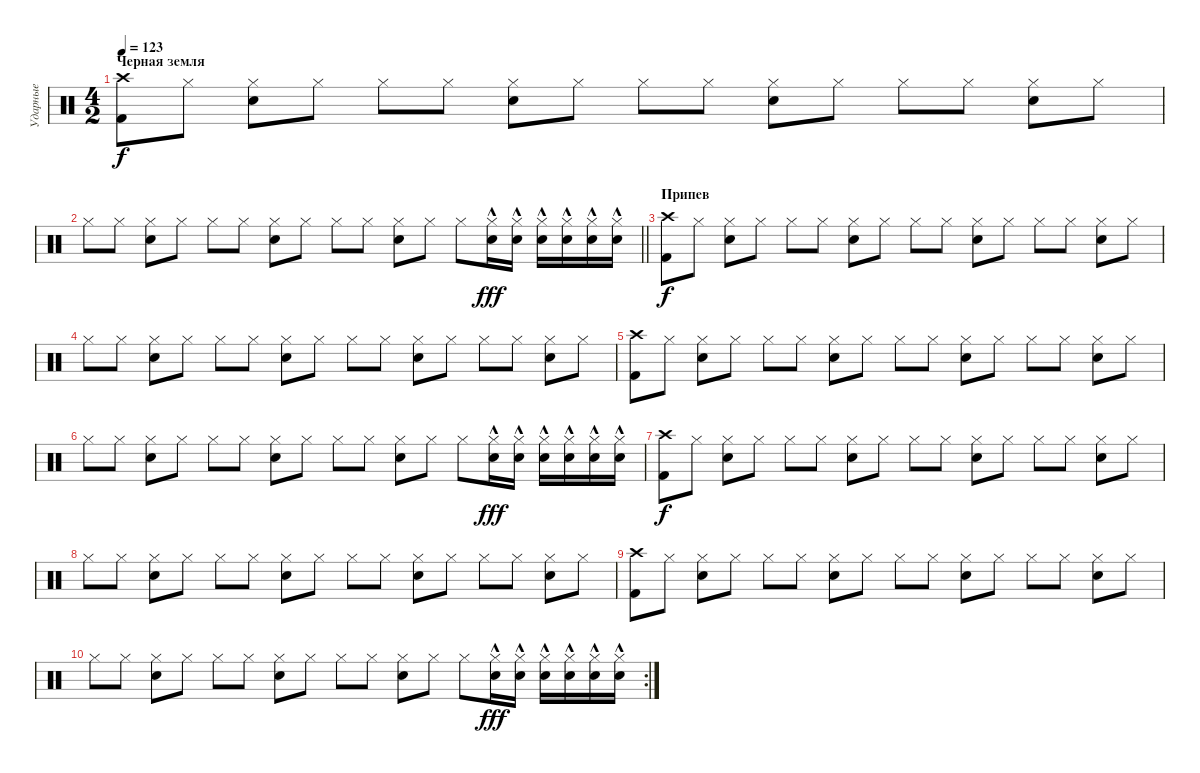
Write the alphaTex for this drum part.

\track ("Ударные" "Ударные") {instrument percussion}
\staff {score}
\articulation defaults
\ts (4 2)
\section ("" "Черная земля")
\tempo 123
\clef neutral
\ks c
("Crash high (hit)" "Kick (hit) 2").8{dy f} "Hi-Hat (closed)".8 ("Hi-Hat (closed)" "Electric Snare (hit)").8 "Hi-Hat (closed)".8 "Hi-Hat (closed)".8 "Hi-Hat (closed)".8 ("Hi-Hat (closed)" "Electric Snare (hit)").8 "Hi-Hat (closed)".8 "Hi-Hat (closed)".8 "Hi-Hat (closed)".8 ("Hi-Hat (closed)" "Electric Snare (hit)").8 "Hi-Hat (closed)".8 "Hi-Hat (closed)".8 "Hi-Hat (closed)".8 ("Hi-Hat (closed)" "Electric Snare (hit)").8 "Hi-Hat (closed)".8 |
\barLineRight lightlight "Hi-Hat (closed)".8 "Hi-Hat (closed)".8
("Hi-Hat (closed)" "Electric Snare (hit)").8 "Hi-Hat (closed)".8 "Hi-Hat (closed)".8 "Hi-Hat (closed)".8 ("Hi-Hat (closed)" "Electric Snare (hit)").8 "Hi-Hat (closed)".8 "Hi-Hat (closed)".8 "Hi-Hat (closed)".8 ("Hi-Hat (closed)" "Electric Snare (hit)").8 "Hi-Hat (closed)".8 "Hi-Hat (closed)".8 ("Hi-Hat (closed)"{hac} "Electric Snare (hit)"{hac}).16{dy fff} ("Hi-Hat (closed)"{hac} "Electric Snare (hit)"{hac}).16 ("Hi-Hat (closed)"{hac} "Electric Snare (hit)"{hac}).16 ("Hi-Hat (closed)"{hac} "Electric Snare (hit)"{hac}).16 ("Hi-Hat (closed)"{hac} "Electric Snare (hit)"{hac}).16 ("Hi-Hat (closed)"{hac} "Electric Snare (hit)"{hac}).16 |
\section ("" "Припев")
("Crash high (hit)" "Kick (hit) 2").8{dy f} "Hi-Hat (closed)".8 ("Hi-Hat (closed)" "Electric Snare (hit)").8 "Hi-Hat (closed)".8 "Hi-Hat (closed)".8 "Hi-Hat (closed)".8 ("Hi-Hat (closed)" "Electric Snare (hit)").8 "Hi-Hat (closed)".8 "Hi-Hat (closed)".8 "Hi-Hat (closed)".8 ("Hi-Hat (closed)" "Electric Snare (hit)").8 "Hi-Hat (closed)".8 "Hi-Hat (closed)".8 "Hi-Hat (closed)".8 ("Hi-Hat (closed)" "Electric Snare (hit)").8 "Hi-Hat (closed)".8 |
"Hi-Hat (closed)".8 "Hi-Hat (closed)".8 ("Hi-Hat (closed)" "Electric Snare (hit)").8 "Hi-Hat (closed)".8 "Hi-Hat (closed)".8 "Hi-Hat (closed)".8 ("Hi-Hat (closed)" "Electric Snare (hit)").8 "Hi-Hat (closed)".8 "Hi-Hat (closed)".8 "Hi-Hat (closed)".8 ("Hi-Hat (closed)" "Electric Snare (hit)").8 "Hi-Hat (closed)".8 "Hi-Hat (closed)".8 "Hi-Hat (closed)".8 ("Hi-Hat (closed)" "Electric Snare (hit)").8 "Hi-Hat (closed)".8 |
("Crash high (hit)" "Kick (hit) 2").8 "Hi-Hat (closed)".8 ("Hi-Hat (closed)" "Electric Snare (hit)").8 "Hi-Hat (closed)".8 "Hi-Hat (closed)".8 "Hi-Hat (closed)".8 ("Hi-Hat (closed)" "Electric Snare (hit)").8 "Hi-Hat (closed)".8 "Hi-Hat (closed)".8 "Hi-Hat (closed)".8 ("Hi-Hat (closed)" "Electric Snare (hit)").8 "Hi-Hat (closed)".8 "Hi-Hat (closed)".8 "Hi-Hat (closed)".8 ("Hi-Hat (closed)" "Electric Snare (hit)").8 "Hi-Hat (closed)".8 |
"Hi-Hat (closed)".8 "Hi-Hat (closed)".8 ("Hi-Hat (closed)" "Electric Snare (hit)").8 "Hi-Hat (closed)".8 "Hi-Hat (closed)".8 "Hi-Hat (closed)".8 ("Hi-Hat (closed)" "Electric Snare (hit)").8 "Hi-Hat (closed)".8 "Hi-Hat (closed)".8 "Hi-Hat (closed)".8 ("Hi-Hat (closed)" "Electric Snare (hit)").8 "Hi-Hat (closed)".8 "Hi-Hat (closed)".8 ("Hi-Hat (closed)"{hac} "Electric Snare (hit)"{hac}).16{dy fff} ("Hi-Hat (closed)"{hac} "Electric Snare (hit)"{hac}).16 ("Hi-Hat (closed)"{hac} "Electric Snare (hit)"{hac}).16 ("Hi-Hat (closed)"{hac} "Electric Snare (hit)"{hac}).16 ("Hi-Hat (closed)"{hac} "Electric Snare (hit)"{hac}).16 ("Hi-Hat (closed)"{hac} "Electric Snare (hit)"{hac}).16 |
("Crash high (hit)" "Kick (hit) 2").8{dy f} "Hi-Hat (closed)".8 ("Hi-Hat (closed)" "Electric Snare (hit)").8 "Hi-Hat (closed)".8 "Hi-Hat (closed)".8 "Hi-Hat (closed)".8 ("Hi-Hat (closed)" "Electric Snare (hit)").8 "Hi-Hat (closed)".8 "Hi-Hat (closed)".8 "Hi-Hat (closed)".8 ("Hi-Hat (closed)" "Electric Snare (hit)").8 "Hi-Hat (closed)".8 "Hi-Hat (closed)".8 "Hi-Hat (closed)".8 ("Hi-Hat (closed)" "Electric Snare (hit)").8 "Hi-Hat (closed)".8 |
"Hi-Hat (closed)".8 "Hi-Hat (closed)".8 ("Hi-Hat (closed)" "Electric Snare (hit)").8 "Hi-Hat (closed)".8 "Hi-Hat (closed)".8 "Hi-Hat (closed)".8 ("Hi-Hat (closed)" "Electric Snare (hit)").8 "Hi-Hat (closed)".8 "Hi-Hat (closed)".8 "Hi-Hat (closed)".8 ("Hi-Hat (closed)" "Electric Snare (hit)").8 "Hi-Hat (closed)".8 "Hi-Hat (closed)".8 "Hi-Hat (closed)".8 ("Hi-Hat (closed)" "Electric Snare (hit)").8 "Hi-Hat (closed)".8 |
("Crash high (hit)" "Kick (hit) 2").8 "Hi-Hat (closed)".8 ("Hi-Hat (closed)" "Electric Snare (hit)").8 "Hi-Hat (closed)".8 "Hi-Hat (closed)".8 "Hi-Hat (closed)".8 ("Hi-Hat (closed)" "Electric Snare (hit)").8 "Hi-Hat (closed)".8 "Hi-Hat (closed)".8 "Hi-Hat (closed)".8 ("Hi-Hat (closed)" "Electric Snare (hit)").8 "Hi-Hat (closed)".8 "Hi-Hat (closed)".8 "Hi-Hat (closed)".8 ("Hi-Hat (closed)" "Electric Snare (hit)").8 "Hi-Hat (closed)".8 |
\rc 2 "Hi-Hat (closed)".8 "Hi-Hat (closed)".8
("Hi-Hat (closed)" "Electric Snare (hit)").8 "Hi-Hat (closed)".8 "Hi-Hat (closed)".8 "Hi-Hat (closed)".8 ("Hi-Hat (closed)" "Electric Snare (hit)").8 "Hi-Hat (closed)".8 "Hi-Hat (closed)".8 "Hi-Hat (closed)".8 ("Hi-Hat (closed)" "Electric Snare (hit)").8 "Hi-Hat (closed)".8 "Hi-Hat (closed)".8 ("Hi-Hat (closed)"{hac} "Electric Snare (hit)"{hac}).16{dy fff} ("Hi-Hat (closed)"{hac} "Electric Snare (hit)"{hac}).16 ("Hi-Hat (closed)"{hac} "Electric Snare (hit)"{hac}).16 ("Hi-Hat (closed)"{hac} "Electric Snare (hit)"{hac}).16 ("Hi-Hat (closed)"{hac} "Electric Snare (hit)"{hac}).16 ("Hi-Hat (closed)"{hac} "Electric Snare (hit)"{hac}).16
